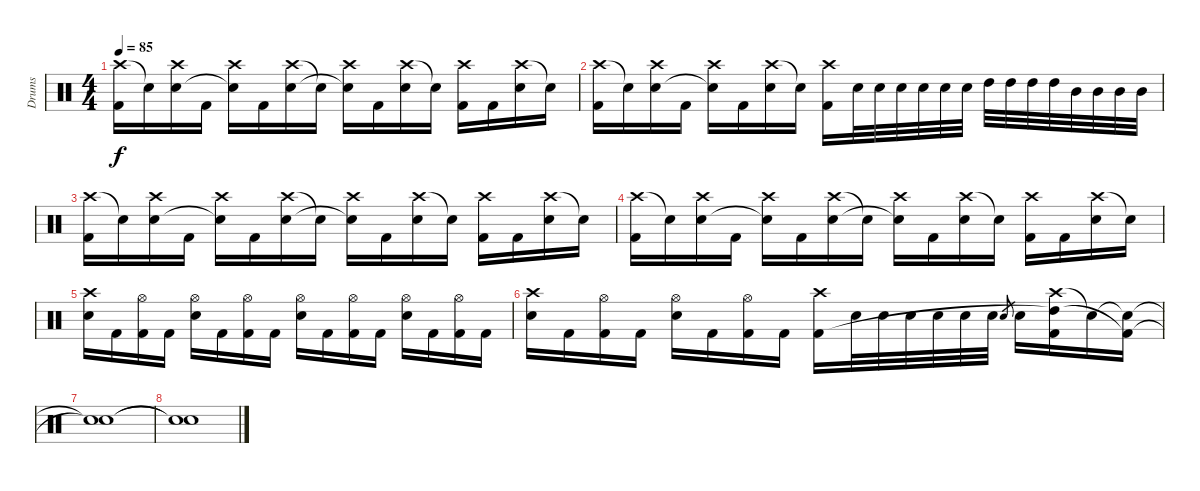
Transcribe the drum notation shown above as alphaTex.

\track ("Drums" "Drums") {instrument percussion}
\staff {score}
\articulation defaults
\ts (4 4)
\tempo 85
\clef neutral
\ks c
("Crash high (hit)" "Kick (hit) 2").16{dy f} "Snare (hit)"{t}.16 ("Crash high (hit)" "Electric Snare (hit)").16 "Kick (hit) 2".16 ("Crash high (hit)" "Snare (hit)"{t}).16 "Kick (hit) 2".16 ("Crash high (hit)" "Electric Snare (hit)").16 "Snare (hit)"{t}.16 ("Crash high (hit)" "Snare (hit)"{t}).16 "Kick (hit) 2".16 ("Crash high (hit)" "Electric Snare (hit)").16 "Snare (hit)"{t}.16 ("Crash high (hit)" "Kick (hit) 2").16 "Kick (hit) 2".16 ("Crash high (hit)" "Electric Snare (hit)").16 "Snare (hit)"{t}.16 |
("Crash high (hit)" "Kick (hit) 2").16 "Snare (hit)"{t}.16 ("Crash high (hit)" "Electric Snare (hit)").16 "Kick (hit) 2".16 ("Crash high (hit)" "Snare (hit)"{t}).16 "Kick (hit) 2".16 ("Crash high (hit)" "Electric Snare (hit)").16 "Snare (hit)"{t}.16 ("Crash high (hit)" "Kick (hit) 2").16 "Electric Snare (hit)".32 "Electric Snare (hit)".32 "Electric Snare (hit)".32 "Electric Snare (hit)".32 "Electric Snare (hit)".32 "Electric Snare (hit)".32 "High Tom (hit)".32 "High Tom (hit)".32 "High Tom (hit)".32 "High Tom (hit)".32 "Mid Tom (hit)".32 "Mid Tom (hit)".32 "Mid Tom (hit)".32 "Mid Tom (hit)".32 |
("Crash high (hit)" "Kick (hit) 2").16 "Snare (hit)"{t}.16 ("Crash high (hit)" "Electric Snare (hit)").16 "Kick (hit) 2".16 ("Crash high (hit)" "Snare (hit)"{t}).16 "Kick (hit) 2".16 ("Crash high (hit)" "Electric Snare (hit)").16 "Snare (hit)"{t}.16 ("Crash high (hit)" "Snare (hit)"{t}).16 "Kick (hit) 2".16 ("Crash high (hit)" "Electric Snare (hit)").16 "Snare (hit)"{t}.16 ("Crash high (hit)" "Kick (hit) 2").16 "Kick (hit) 2".16 ("Crash high (hit)" "Electric Snare (hit)").16 "Snare (hit)"{t}.16 |
("Crash high (hit)" "Kick (hit) 2").16 "Snare (hit)"{t}.16 ("Crash high (hit)" "Electric Snare (hit)").16 "Kick (hit) 2".16 ("Crash high (hit)" "Snare (hit)"{t}).16 "Kick (hit) 2".16 ("Crash high (hit)" "Electric Snare (hit)").16 "Snare (hit)"{t}.16 ("Crash high (hit)" "Snare (hit)"{t}).16 "Kick (hit) 2".16 ("Crash high (hit)" "Electric Snare (hit)").16 "Snare (hit)"{t}.16 ("Crash high (hit)" "Kick (hit) 2").16 "Kick (hit) 2".16 ("Crash high (hit)" "Electric Snare (hit)").16 "Snare (hit)"{t}.16 |
("Crash high (hit)" "Electric Snare (hit)").16 "Kick (hit) 2".16 ("Hi-Hat (open)" "Kick (hit) 2").16 "Kick (hit) 2".16 ("Hi-Hat (open)" "Electric Snare (hit)").16 "Kick (hit) 2".16 ("Hi-Hat (open)" "Kick (hit) 2").16 "Kick (hit) 2".16 ("Hi-Hat (open)" "Electric Snare (hit)").16 "Kick (hit) 2".16 ("Hi-Hat (open)" "Kick (hit) 2").16 "Kick (hit) 2".16 ("Hi-Hat (open)" "Electric Snare (hit)").16 "Kick (hit) 2".16 ("Hi-Hat (open)" "Kick (hit) 2").16 "Kick (hit) 2".16 |
("Crash high (hit)" "Electric Snare (hit)").16 "Kick (hit) 2".16 ("Hi-Hat (open)" "Kick (hit) 2").16 "Kick (hit) 2".16 ("Hi-Hat (open)" "Electric Snare (hit)").16 "Kick (hit) 2".16 ("Hi-Hat (open)" "Kick (hit) 2").16 "Kick (hit) 2".16 ("Crash high (hit)" "Kick (hit) 2").16 "Electric Snare (hit)".32 "Electric Snare (hit)".32 "Electric Snare (hit)".32 "Electric Snare (hit)".32 "Electric Snare (hit)".32 "Electric Snare (hit)".32 "Electric Snare (hit)".8{gr} "Electric Snare (hit)".16 ("Crash high (hit)" "High Tom (hit)"{t} "Kick (hit) 2").16 "Snare (hit)"{t}.16 ("Snare (hit)"{t} "Kick (hit) 2"{t}).16 |
("Snare (hit)"{t} "Snare (hit)"{t}).1 |
("Snare (hit)"{t} "Snare (hit)"{t}).1
